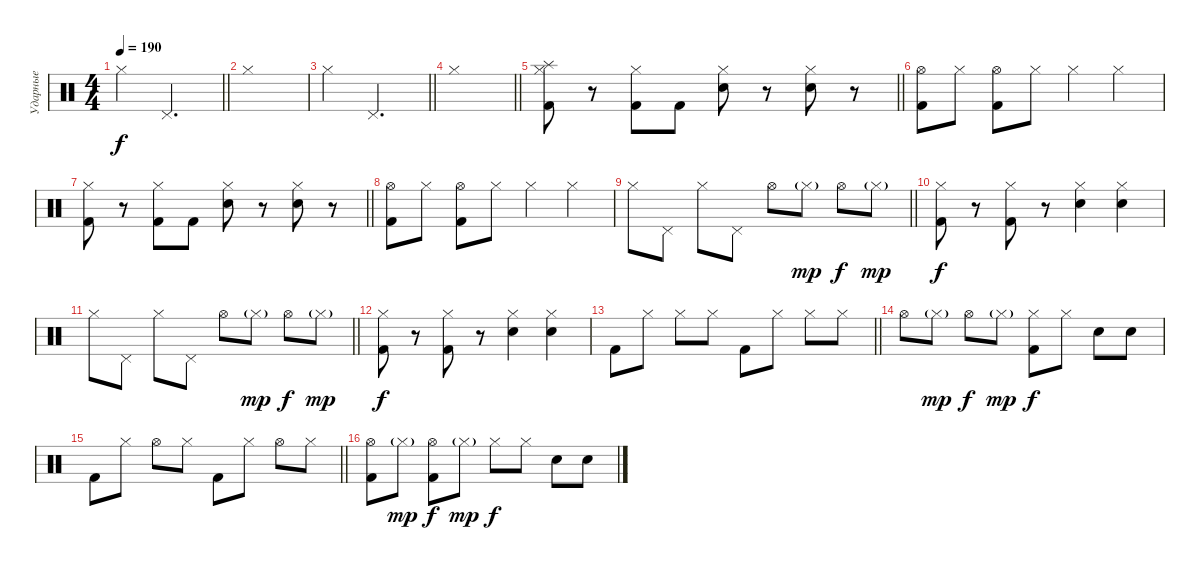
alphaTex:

\track ("Ударные" "Ударные") {instrument percussion}
\staff {score}
\articulation defaults
\ts (4 4)
\tempo 190
\clef neutral
\barLineRight lightlight
\ks c "Hi-Hat (closed)".4{dy f} "Pedal Hi-Hat (hit)".2{d}
|
"Hi-Hat (closed)".1 |
\barLineRight lightlight "Hi-Hat (closed)".4 "Pedal Hi-Hat (hit)".2{d}
|
\barLineRight lightlight "Hi-Hat (closed)".1
|
\section ("" "")
\barLineRight lightlight
("Splash (hit)" "Hi-Hat (closed)" "Kick (hit) 2").8 r.8 ("Hi-Hat (closed)" "Kick (hit) 2").8 "Kick (hit) 2".8 ("Hi-Hat (closed)" "Electric Snare (hit)").8 r.8 ("Hi-Hat (closed)" "Electric Snare (hit)").8 r.8 |
("Hi-Hat (open)" "Kick (hit) 2").8 "Hi-Hat (closed)".8 ("Hi-Hat (open)" "Kick (hit) 2").8 "Hi-Hat (closed)".8 "Hi-Hat (closed)".4 "Hi-Hat (closed)".4 |
\barLineRight lightlight
("Hi-Hat (closed)" "Kick (hit) 2").8 r.8 ("Hi-Hat (closed)" "Kick (hit) 2").8 "Kick (hit) 2".8 ("Hi-Hat (closed)" "Electric Snare (hit)").8 r.8 ("Hi-Hat (closed)" "Electric Snare (hit)").8 r.8 |
("Hi-Hat (open)" "Kick (hit) 2").8 "Hi-Hat (closed)".8 ("Hi-Hat (open)" "Kick (hit) 2").8 "Hi-Hat (closed)".8 "Hi-Hat (closed)".4 "Hi-Hat (closed)".4 |
\barLineRight lightlight "Hi-Hat (closed)".8 "Pedal Hi-Hat (hit)".8 "Hi-Hat (closed)".8 "Pedal Hi-Hat (hit)".8 "Hi-Hat (open)".8 "Hi-Hat (closed)"{g}.8{dy mp} "Hi-Hat (open)".8{dy f} "Hi-Hat (closed)"{g}.8{dy mp}
|
("Hi-Hat (closed)" "Kick (hit) 2").8{dy f} r.8 ("Hi-Hat (closed)" "Kick (hit) 2").8 r.8 ("Hi-Hat (closed)" "Electric Snare (hit)").4 ("Hi-Hat (closed)" "Electric Snare (hit)").4 |
\barLineRight lightlight "Hi-Hat (closed)".8 "Pedal Hi-Hat (hit)".8 "Hi-Hat (closed)".8 "Pedal Hi-Hat (hit)".8 "Hi-Hat (open)".8 "Hi-Hat (closed)"{g}.8{dy mp} "Hi-Hat (open)".8{dy f} "Hi-Hat (closed)"{g}.8{dy mp}
|
("Hi-Hat (closed)" "Kick (hit) 2").8{dy f} r.8 ("Hi-Hat (closed)" "Kick (hit) 2").8 r.8 ("Hi-Hat (closed)" "Electric Snare (hit)").4 ("Hi-Hat (closed)" "Electric Snare (hit)").4 |
\barLineRight lightlight "Kick (hit) 2".8 "Hi-Hat (closed)".8 "Hi-Hat (closed)".8 "Hi-Hat (closed)".8 "Kick (hit) 2".8 "Hi-Hat (closed)".8 "Hi-Hat (closed)".8 "Hi-Hat (closed)".8
|
"Hi-Hat (open)".8 "Hi-Hat (closed)"{g}.8{dy mp} "Hi-Hat (open)".8{dy f} "Hi-Hat (closed)"{g}.8{dy mp} ("Hi-Hat (closed)" "Kick (hit) 2").8{dy f} "Hi-Hat (closed)".8 "Electric Snare (hit)".8 "Electric Snare (hit)".8 |
\barLineRight lightlight "Kick (hit) 2".8 "Hi-Hat (closed)".8 "Hi-Hat (open)".8 "Hi-Hat (closed)".8 "Kick (hit) 2".8 "Hi-Hat (closed)".8 "Hi-Hat (open)".8 "Hi-Hat (closed)".8
|
("Hi-Hat (open)" "Kick (hit) 2").8 "Hi-Hat (closed)"{g}.8{dy mp} ("Hi-Hat (open)" "Kick (hit) 2").8{dy f} "Hi-Hat (closed)"{g}.8{dy mp} "Hi-Hat (closed)".8{dy f} "Hi-Hat (closed)".8 "Electric Snare (hit)".8 "Electric Snare (hit)".8
